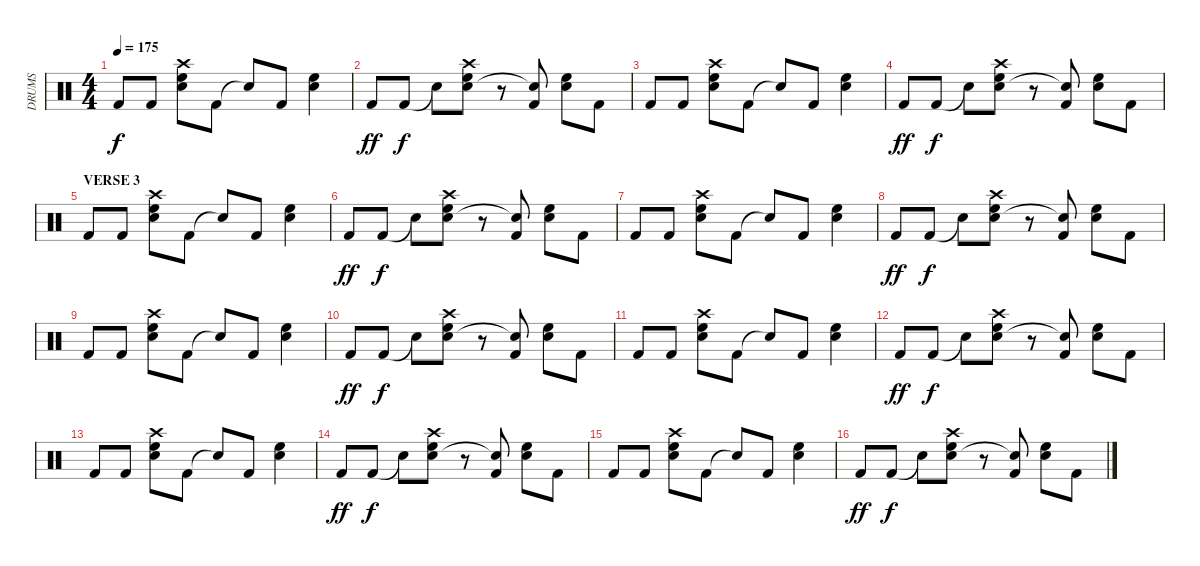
\track ("DRUMS" "DRUMS") {instrument percussion}
\staff {score}
\articulation defaults
\ts (4 4)
\tempo 175
\clef neutral
\ks c "Kick (hit) 2".8{dy f} "Kick (hit) 2".8
("High Floor Tom (hit)" "Electric Snare (hit)" "Crash high (hit)").8 "Kick (hit) 2".8 "Snare (hit)"{t}.8 "Kick (hit) 2".8 ("High Floor Tom (hit)" "Electric Snare (hit)").4 |
"Kick (hit) 2".8{dy ff} "Kick (hit) 2".8{dy f} "Snare (hit)"{t}.8 ("High Floor Tom (hit)" "Electric Snare (hit)" "Crash high (hit)").8 r.8 ("Kick (hit) 2" "Snare (hit)"{t}).8 ("High Floor Tom (hit)" "Electric Snare (hit)").8 "Kick (hit) 2".8 |
"Kick (hit) 2".8 "Kick (hit) 2".8 ("High Floor Tom (hit)" "Electric Snare (hit)" "Crash high (hit)").8 "Kick (hit) 2".8 "Snare (hit)"{t}.8 "Kick (hit) 2".8 ("High Floor Tom (hit)" "Electric Snare (hit)").4 |
"Kick (hit) 2".8{dy ff} "Kick (hit) 2".8{dy f} "Snare (hit)"{t}.8 ("High Floor Tom (hit)" "Electric Snare (hit)" "Crash high (hit)").8 r.8 ("Kick (hit) 2" "Snare (hit)"{t}).8 ("High Floor Tom (hit)" "Electric Snare (hit)").8 "Kick (hit) 2".8 |
\section ("" "VERSE 3")
"Kick (hit) 2".8 "Kick (hit) 2".8 ("High Floor Tom (hit)" "Electric Snare (hit)" "Crash high (hit)").8 "Kick (hit) 2".8 "Snare (hit)"{t}.8 "Kick (hit) 2".8 ("High Floor Tom (hit)" "Electric Snare (hit)").4 |
"Kick (hit) 2".8{dy ff} "Kick (hit) 2".8{dy f} "Snare (hit)"{t}.8 ("High Floor Tom (hit)" "Electric Snare (hit)" "Crash high (hit)").8 r.8 ("Kick (hit) 2" "Snare (hit)"{t}).8 ("High Floor Tom (hit)" "Electric Snare (hit)").8 "Kick (hit) 2".8 |
"Kick (hit) 2".8 "Kick (hit) 2".8 ("High Floor Tom (hit)" "Electric Snare (hit)" "Crash high (hit)").8 "Kick (hit) 2".8 "Snare (hit)"{t}.8 "Kick (hit) 2".8 ("High Floor Tom (hit)" "Electric Snare (hit)").4 |
"Kick (hit) 2".8{dy ff} "Kick (hit) 2".8{dy f} "Snare (hit)"{t}.8 ("High Floor Tom (hit)" "Electric Snare (hit)" "Crash high (hit)").8 r.8 ("Kick (hit) 2" "Snare (hit)"{t}).8 ("High Floor Tom (hit)" "Electric Snare (hit)").8 "Kick (hit) 2".8 |
"Kick (hit) 2".8 "Kick (hit) 2".8 ("High Floor Tom (hit)" "Electric Snare (hit)" "Crash high (hit)").8 "Kick (hit) 2".8 "Snare (hit)"{t}.8 "Kick (hit) 2".8 ("High Floor Tom (hit)" "Electric Snare (hit)").4 |
"Kick (hit) 2".8{dy ff} "Kick (hit) 2".8{dy f} "Snare (hit)"{t}.8 ("High Floor Tom (hit)" "Electric Snare (hit)" "Crash high (hit)").8 r.8 ("Kick (hit) 2" "Snare (hit)"{t}).8 ("High Floor Tom (hit)" "Electric Snare (hit)").8 "Kick (hit) 2".8 |
"Kick (hit) 2".8 "Kick (hit) 2".8 ("High Floor Tom (hit)" "Electric Snare (hit)" "Crash high (hit)").8 "Kick (hit) 2".8 "Snare (hit)"{t}.8 "Kick (hit) 2".8 ("High Floor Tom (hit)" "Electric Snare (hit)").4 |
"Kick (hit) 2".8{dy ff} "Kick (hit) 2".8{dy f} "Snare (hit)"{t}.8 ("High Floor Tom (hit)" "Electric Snare (hit)" "Crash high (hit)").8 r.8 ("Kick (hit) 2" "Snare (hit)"{t}).8 ("High Floor Tom (hit)" "Electric Snare (hit)").8 "Kick (hit) 2".8 |
"Kick (hit) 2".8 "Kick (hit) 2".8 ("High Floor Tom (hit)" "Electric Snare (hit)" "Crash high (hit)").8 "Kick (hit) 2".8 "Snare (hit)"{t}.8 "Kick (hit) 2".8 ("High Floor Tom (hit)" "Electric Snare (hit)").4 |
"Kick (hit) 2".8{dy ff} "Kick (hit) 2".8{dy f} "Snare (hit)"{t}.8 ("High Floor Tom (hit)" "Electric Snare (hit)" "Crash high (hit)").8 r.8 ("Kick (hit) 2" "Snare (hit)"{t}).8 ("High Floor Tom (hit)" "Electric Snare (hit)").8 "Kick (hit) 2".8 |
"Kick (hit) 2".8 "Kick (hit) 2".8 ("High Floor Tom (hit)" "Electric Snare (hit)" "Crash high (hit)").8 "Kick (hit) 2".8 "Snare (hit)"{t}.8 "Kick (hit) 2".8 ("High Floor Tom (hit)" "Electric Snare (hit)").4 |
"Kick (hit) 2".8{dy ff} "Kick (hit) 2".8{dy f} "Snare (hit)"{t}.8 ("High Floor Tom (hit)" "Electric Snare (hit)" "Crash high (hit)").8 r.8 ("Kick (hit) 2" "Snare (hit)"{t}).8 ("High Floor Tom (hit)" "Electric Snare (hit)").8 "Kick (hit) 2".8
